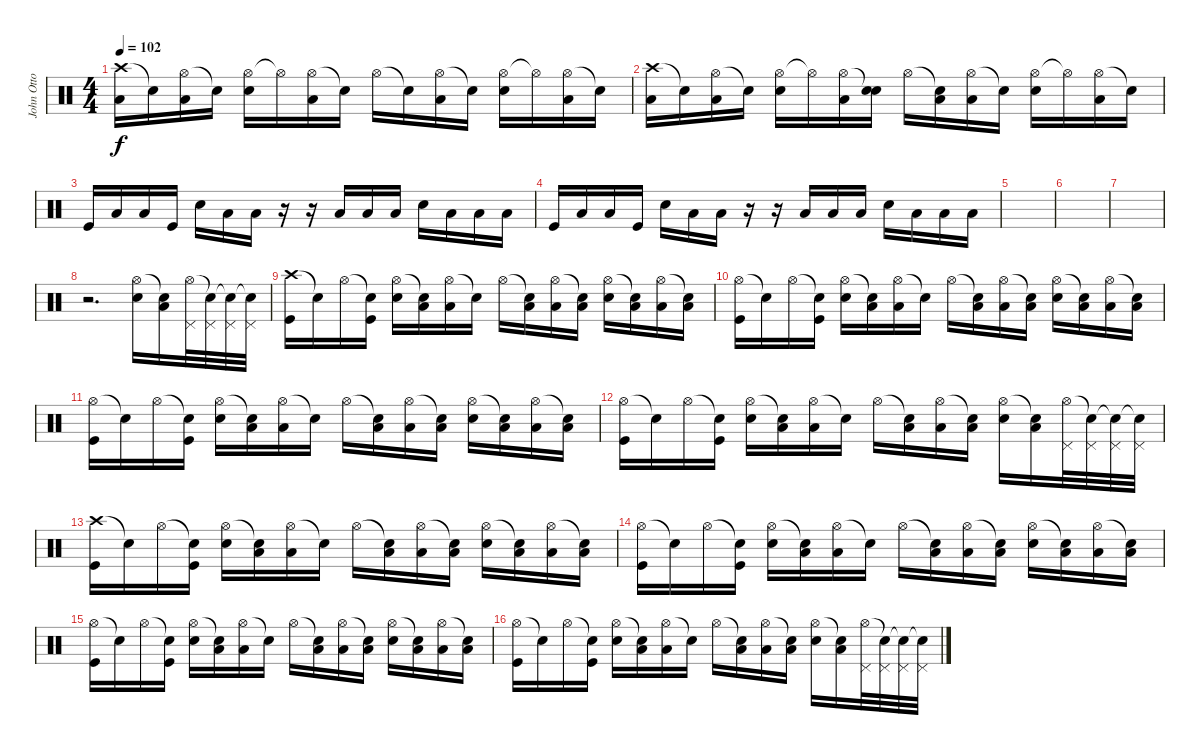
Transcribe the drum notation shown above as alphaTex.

\track ("John Otto (1st Drums)" "John Otto ") {instrument percussion}
\staff {score}
\articulation defaults
\ts (4 4)
\tempo 102
\clef neutral
\ks c
("Crash high (hit)" "Low Tom (hit)").16{dy f} "Snare (hit)"{t}.16 ("Hi-Hat (open)" "Low Tom (hit)").16 "Snare (hit)"{t}.16 ("Hi-Hat (open)" "Snare (hit) 2").16 "Hi-Hat (open)"{t}.16 ("Hi-Hat (open)" "Low Tom (hit)").16 "Snare (hit)"{t}.16 "Hi-Hat (open)".16 "Snare (hit)"{t}.16 ("Hi-Hat (open)" "Low Tom (hit)").16 "Snare (hit)"{t}.16 ("Hi-Hat (open)" "Snare (hit) 2").16 "Hi-Hat (open)"{t}.16 ("Hi-Hat (open)" "Low Tom (hit)").16 "Snare (hit)"{t}.16 |
("Crash high (hit)" "Low Tom (hit)").16 "Snare (hit)"{t}.16 ("Hi-Hat (open)" "Low Tom (hit)").16 "Snare (hit)"{t}.16 ("Hi-Hat (open)" "Snare (hit) 2").16 "Hi-Hat (open)"{t}.16 ("Hi-Hat (open)" "Low Tom (hit)").16 ("Snare (hit)"{t} "Snare (hit) 2").16 "Hi-Hat (open)".16 ("Snare (hit)"{t} "Low Tom (hit)").16 ("Hi-Hat (open)" "Low Tom (hit)").16 "Snare (hit)"{t}.16 ("Hi-Hat (open)" "Snare (hit) 2").16 "Hi-Hat (open)"{t}.16 ("Hi-Hat (open)" "Low Tom (hit)").16 "Snare (hit)"{t}.16 |
"Kick (hit)".16 "Low Tom (hit)".16 "Low Tom (hit)".16 "Kick (hit)".16 "Snare (hit) 2".16 "Low Tom (hit)".16 "Low Tom (hit)".16 r.16 r.16 "Low Tom (hit)".16 "Low Tom (hit)".16 "Low Tom (hit)".16 "Snare (hit) 2".16 "Low Tom (hit)".16 "Low Tom (hit)".16 "Low Tom (hit)".16 |
"Kick (hit)".16 "Low Tom (hit)".16 "Low Tom (hit)".16 "Kick (hit)".16 "Snare (hit) 2".16 "Low Tom (hit)".16 "Low Tom (hit)".16 r.16 r.16 "Low Tom (hit)".16 "Low Tom (hit)".16 "Low Tom (hit)".16 "Snare (hit) 2".16 "Low Tom (hit)".16 "Low Tom (hit)".16 "Low Tom (hit)".16 |
|
|
|
r.2{d} ("Hi-Hat (open)" "Snare (hit) 2").16 ("Snare (hit)"{t} "Low Tom (hit)").16 ("Hi-Hat (open)" "Pedal Hi-Hat (hit)").32 ("Snare (hit)"{t} "Pedal Hi-Hat (hit)").32 ("Snare (hit)"{t} "Pedal Hi-Hat (hit)").32 ("Snare (hit)"{t} "Pedal Hi-Hat (hit)").32 |
("Crash high (hit)" "Kick (hit)").16 "Snare (hit)"{t}.16 "Hi-Hat (open)".16 ("Snare (hit)"{t} "Kick (hit)").16 ("Hi-Hat (open)" "Snare (hit) 2").16 ("Snare (hit)"{t} "Low Tom (hit)").16 ("Hi-Hat (open)" "Low Tom (hit)").16 "Snare (hit)"{t}.16 "Hi-Hat (open)".16 ("Snare (hit)"{t} "Low Tom (hit)").16 ("Hi-Hat (open)" "Low Tom (hit)").16 ("Snare (hit)"{t} "Low Tom (hit)").16 ("Hi-Hat (open)" "Snare (hit) 2").16 ("Snare (hit)"{t} "Low Tom (hit)").16 ("Hi-Hat (open)" "Low Tom (hit)").16 ("Snare (hit)"{t} "Low Tom (hit)").16 |
("Hi-Hat (open)" "Kick (hit)").16 "Snare (hit)"{t}.16 "Hi-Hat (open)".16 ("Snare (hit)"{t} "Kick (hit)").16 ("Hi-Hat (open)" "Snare (hit) 2").16 ("Snare (hit)"{t} "Low Tom (hit)").16 ("Hi-Hat (open)" "Low Tom (hit)").16 "Snare (hit)"{t}.16 "Hi-Hat (open)".16 ("Snare (hit)"{t} "Low Tom (hit)").16 ("Hi-Hat (open)" "Low Tom (hit)").16 ("Snare (hit)"{t} "Low Tom (hit)").16 ("Hi-Hat (open)" "Snare (hit) 2").16 ("Snare (hit)"{t} "Low Tom (hit)").16 ("Hi-Hat (open)" "Low Tom (hit)").16 ("Snare (hit)"{t} "Low Tom (hit)").16 |
("Hi-Hat (open)" "Kick (hit)").16 "Snare (hit)"{t}.16 "Hi-Hat (open)".16 ("Snare (hit)"{t} "Kick (hit)").16 ("Hi-Hat (open)" "Snare (hit) 2").16 ("Snare (hit)"{t} "Low Tom (hit)").16 ("Hi-Hat (open)" "Low Tom (hit)").16 "Snare (hit)"{t}.16 "Hi-Hat (open)".16 ("Snare (hit)"{t} "Low Tom (hit)").16 ("Hi-Hat (open)" "Low Tom (hit)").16 ("Snare (hit)"{t} "Low Tom (hit)").16 ("Hi-Hat (open)" "Snare (hit) 2").16 ("Snare (hit)"{t} "Low Tom (hit)").16 ("Hi-Hat (open)" "Low Tom (hit)").16 ("Snare (hit)"{t} "Low Tom (hit)").16 |
("Hi-Hat (open)" "Kick (hit)").16 "Snare (hit)"{t}.16 "Hi-Hat (open)".16 ("Snare (hit)"{t} "Kick (hit)").16 ("Hi-Hat (open)" "Snare (hit) 2").16 ("Snare (hit)"{t} "Low Tom (hit)").16 ("Hi-Hat (open)" "Low Tom (hit)").16 "Snare (hit)"{t}.16 "Hi-Hat (open)".16 ("Snare (hit)"{t} "Low Tom (hit)").16 ("Hi-Hat (open)" "Low Tom (hit)").16 ("Snare (hit)"{t} "Low Tom (hit)").16 ("Hi-Hat (open)" "Snare (hit) 2").16 ("Snare (hit)"{t} "Low Tom (hit)").16 ("Hi-Hat (open)" "Pedal Hi-Hat (hit)").32 ("Snare (hit)"{t} "Pedal Hi-Hat (hit)").32 ("Snare (hit)"{t} "Pedal Hi-Hat (hit)").32 ("Snare (hit)"{t} "Pedal Hi-Hat (hit)").32 |
("Crash high (hit)" "Kick (hit)").16 "Snare (hit)"{t}.16 "Hi-Hat (open)".16 ("Snare (hit)"{t} "Kick (hit)").16 ("Hi-Hat (open)" "Snare (hit) 2").16 ("Snare (hit)"{t} "Low Tom (hit)").16 ("Hi-Hat (open)" "Low Tom (hit)").16 "Snare (hit)"{t}.16 "Hi-Hat (open)".16 ("Snare (hit)"{t} "Low Tom (hit)").16 ("Hi-Hat (open)" "Low Tom (hit)").16 ("Snare (hit)"{t} "Low Tom (hit)").16 ("Hi-Hat (open)" "Snare (hit) 2").16 ("Snare (hit)"{t} "Low Tom (hit)").16 ("Hi-Hat (open)" "Low Tom (hit)").16 ("Snare (hit)"{t} "Low Tom (hit)").16 |
("Hi-Hat (open)" "Kick (hit)").16 "Snare (hit)"{t}.16 "Hi-Hat (open)".16 ("Snare (hit)"{t} "Kick (hit)").16 ("Hi-Hat (open)" "Snare (hit) 2").16 ("Snare (hit)"{t} "Low Tom (hit)").16 ("Hi-Hat (open)" "Low Tom (hit)").16 "Snare (hit)"{t}.16 "Hi-Hat (open)".16 ("Snare (hit)"{t} "Low Tom (hit)").16 ("Hi-Hat (open)" "Low Tom (hit)").16 ("Snare (hit)"{t} "Low Tom (hit)").16 ("Hi-Hat (open)" "Snare (hit) 2").16 ("Snare (hit)"{t} "Low Tom (hit)").16 ("Hi-Hat (open)" "Low Tom (hit)").16 ("Snare (hit)"{t} "Low Tom (hit)").16 |
("Hi-Hat (open)" "Kick (hit)").16 "Snare (hit)"{t}.16 "Hi-Hat (open)".16 ("Snare (hit)"{t} "Kick (hit)").16 ("Hi-Hat (open)" "Snare (hit) 2").16 ("Snare (hit)"{t} "Low Tom (hit)").16 ("Hi-Hat (open)" "Low Tom (hit)").16 "Snare (hit)"{t}.16 "Hi-Hat (open)".16 ("Snare (hit)"{t} "Low Tom (hit)").16 ("Hi-Hat (open)" "Low Tom (hit)").16 ("Snare (hit)"{t} "Low Tom (hit)").16 ("Hi-Hat (open)" "Snare (hit) 2").16 ("Snare (hit)"{t} "Low Tom (hit)").16 ("Hi-Hat (open)" "Low Tom (hit)").16 ("Snare (hit)"{t} "Low Tom (hit)").16 |
("Hi-Hat (open)" "Kick (hit)").16 "Snare (hit)"{t}.16 "Hi-Hat (open)".16 ("Snare (hit)"{t} "Kick (hit)").16 ("Hi-Hat (open)" "Snare (hit) 2").16 ("Snare (hit)"{t} "Low Tom (hit)").16 ("Hi-Hat (open)" "Low Tom (hit)").16 "Snare (hit)"{t}.16 "Hi-Hat (open)".16 ("Snare (hit)"{t} "Low Tom (hit)").16 ("Hi-Hat (open)" "Low Tom (hit)").16 ("Snare (hit)"{t} "Low Tom (hit)").16 ("Hi-Hat (open)" "Snare (hit) 2").16 ("Snare (hit)"{t} "Low Tom (hit)").16 ("Hi-Hat (open)" "Pedal Hi-Hat (hit)").32 ("Snare (hit)"{t} "Pedal Hi-Hat (hit)").32 ("Snare (hit)"{t} "Pedal Hi-Hat (hit)").32 ("Snare (hit)"{t} "Pedal Hi-Hat (hit)").32
